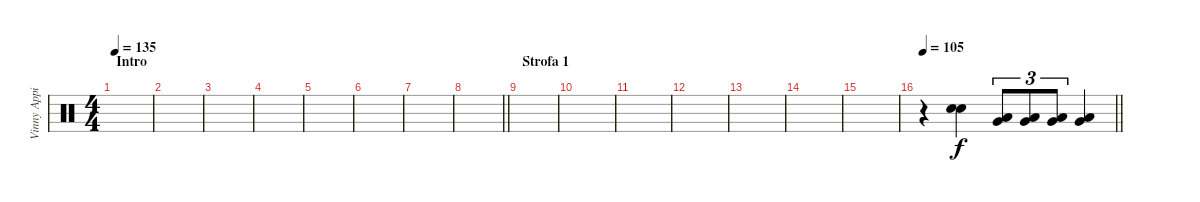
\track ("Vinny Appice" "Vinny Appi") {instrument percussion}
\staff {score}
\articulation defaults
\ts (4 4)
\section ("" "Intro")
\tempo 135
\tempo 105
\tempo 135
\clef neutral
\ks c
|
|
|
|
|
|
|
\barLineRight lightlight
|
\section ("" "Strofa 1")
|
|
|
|
|
|
|
\tempo 105
\barLineRight lightlight
r.4 ("Electric Snare (hit)" "Snare (hit) 2").4{bu 240} ("Very Low Tom (hit)" "Low Floor Tom (hit)").8{tu (3 2)} ("Very Low Tom (hit)" "Low Floor Tom (hit)").8{tu (3 2)} ("Very Low Tom (hit)" "Low Floor Tom (hit)").8{tu (3 2)} ("Very Low Tom (hit)" "Low Floor Tom (hit)").4
